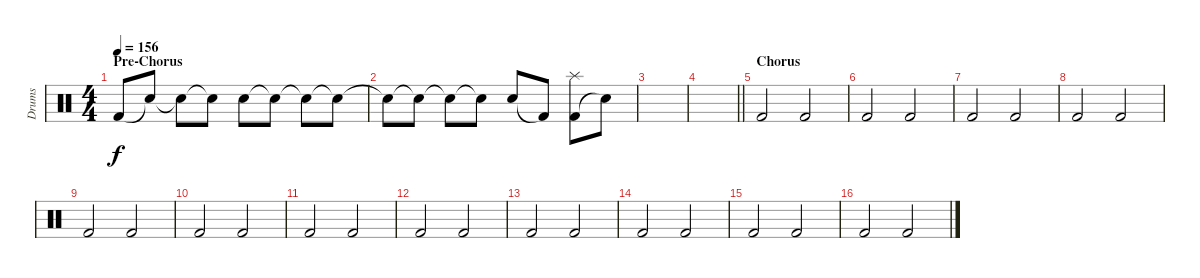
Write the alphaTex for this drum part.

\track ("Drums" "Drums") {instrument percussion}
\staff {score}
\articulation defaults
\ts (4 4)
\section ("" "Pre-Chorus")
\tempo 156
\clef neutral
\ks c "Kick (hit) 2".8{dy f} "Snare (hit)"{t}.8 "Electric Snare (hit)"{t}.8 "Electric Snare (hit)"{t}.8 "Snare (hit) 2".8 "Snare (hit)"{t}.8 "Snare (hit)"{t}.8 "Snare (hit)"{t}.8
|
"Electric Snare (hit)"{t}.8 "Snare (hit)"{t}.8 "Snare (hit)"{t}.8 "Snare (hit)"{t}.8 "Snare (hit) 2".8 "Kick (hit) 2"{t}.8 ("Kick (hit) 2" "Splash (hit)").8 "Snare (hit)"{t}.8 |
|
\barLineRight lightlight
|
\section ("" "Chorus")
"Kick (hit) 2".2 "Kick (hit) 2".2 |
"Kick (hit) 2".2 "Kick (hit) 2".2 |
"Kick (hit) 2".2 "Kick (hit) 2".2 |
"Kick (hit) 2".2 "Kick (hit) 2".2 |
"Kick (hit) 2".2 "Kick (hit) 2".2 |
"Kick (hit) 2".2 "Kick (hit) 2".2 |
"Kick (hit) 2".2 "Kick (hit) 2".2 |
"Kick (hit) 2".2 "Kick (hit) 2".2 |
"Kick (hit) 2".2 "Kick (hit) 2".2 |
"Kick (hit) 2".2 "Kick (hit) 2".2 |
"Kick (hit) 2".2 "Kick (hit) 2".2 |
"Kick (hit) 2".2 "Kick (hit) 2".2
